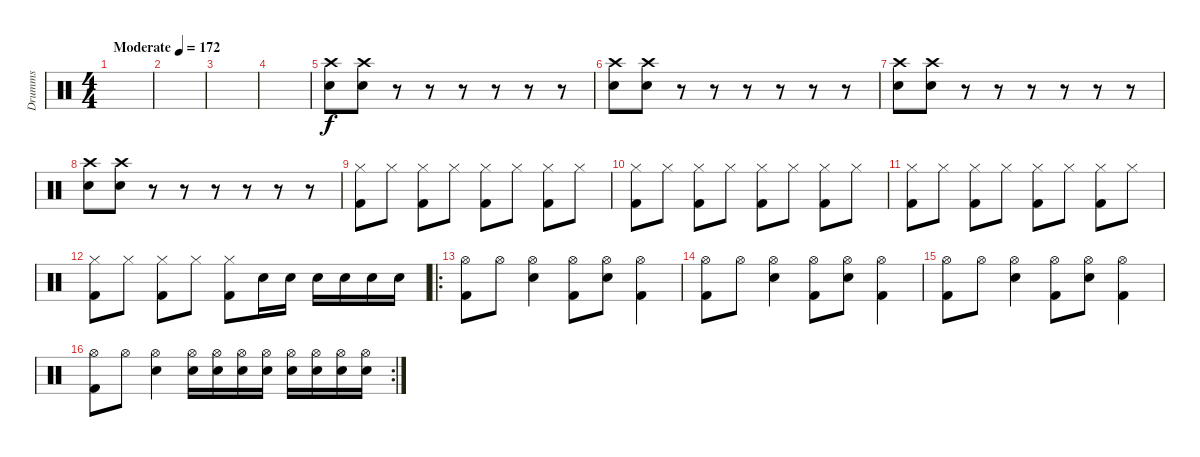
\track ("Drumms" "Drumms") {instrument percussion}
\staff
\articulation defaults
\ts (4 4)
\tempo (172 "Moderate")
\clef neutral
\ks c
|
|
|
|
("Crash high (hit)" "Electric Snare (hit)").8 ("Crash high (hit)" "Electric Snare (hit)").8 r.8 r.8 r.8 r.8 r.8 r.8 |
("Crash high (hit)" "Electric Snare (hit)").8 ("Crash high (hit)" "Electric Snare (hit)").8 r.8 r.8 r.8 r.8 r.8 r.8 |
("Crash high (hit)" "Electric Snare (hit)").8 ("Crash high (hit)" "Electric Snare (hit)").8 r.8 r.8 r.8 r.8 r.8 r.8 |
("Crash high (hit)" "Electric Snare (hit)").8 ("Crash high (hit)" "Electric Snare (hit)").8 r.8 r.8 r.8 r.8 r.8 r.8 |
("Hi-Hat (closed)" "Kick (hit) 2").8 "Hi-Hat (closed)".8 ("Hi-Hat (closed)" "Kick (hit) 2").8 "Hi-Hat (closed)".8 ("Hi-Hat (closed)" "Kick (hit) 2").8 "Hi-Hat (closed)".8 ("Hi-Hat (closed)" "Kick (hit) 2").8 "Hi-Hat (closed)".8 |
("Hi-Hat (closed)" "Kick (hit) 2").8 "Hi-Hat (closed)".8 ("Hi-Hat (closed)" "Kick (hit) 2").8 "Hi-Hat (closed)".8 ("Hi-Hat (closed)" "Kick (hit) 2").8 "Hi-Hat (closed)".8 ("Hi-Hat (closed)" "Kick (hit) 2").8 "Hi-Hat (closed)".8 |
("Hi-Hat (closed)" "Kick (hit) 2").8 "Hi-Hat (closed)".8 ("Hi-Hat (closed)" "Kick (hit) 2").8 "Hi-Hat (closed)".8 ("Hi-Hat (closed)" "Kick (hit) 2").8 "Hi-Hat (closed)".8 ("Hi-Hat (closed)" "Kick (hit) 2").8 "Hi-Hat (closed)".8 |
("Hi-Hat (closed)" "Kick (hit) 2").8 "Hi-Hat (closed)".8 ("Hi-Hat (closed)" "Kick (hit) 2").8 "Hi-Hat (closed)".8 ("Hi-Hat (closed)" "Kick (hit) 2").8 "Snare (hit) 2".16 "Electric Snare (hit)".16 "Snare (hit) 2".16 "Electric Snare (hit)".16 "Snare (hit) 2".16 "Electric Snare (hit)".16 |
\ro
("Kick (hit) 2" "Hi-Hat (open)").8 "Hi-Hat (open)".8 ("Snare (hit) 2" "Hi-Hat (open)").4 ("Kick (hit) 2" "Hi-Hat (open)").8 ("Snare (hit) 2" "Hi-Hat (open)").8 ("Kick (hit) 2" "Hi-Hat (open)").4 |
("Kick (hit) 2" "Hi-Hat (open)").8 "Hi-Hat (open)".8 ("Snare (hit) 2" "Hi-Hat (open)").4 ("Kick (hit) 2" "Hi-Hat (open)").8 ("Snare (hit) 2" "Hi-Hat (open)").8 ("Kick (hit) 2" "Hi-Hat (open)").4 |
("Kick (hit) 2" "Hi-Hat (open)").8 "Hi-Hat (open)".8 ("Snare (hit) 2" "Hi-Hat (open)").4 ("Kick (hit) 2" "Hi-Hat (open)").8 ("Snare (hit) 2" "Hi-Hat (open)").8 ("Kick (hit) 2" "Hi-Hat (open)").4 |
\rc 2
("Kick (hit) 2" "Hi-Hat (open)").8 "Hi-Hat (open)".8 ("Snare (hit) 2" "Hi-Hat (open)").4 ("Snare (hit) 2" "Hi-Hat (open)").16 ("Electric Snare (hit)" "Hi-Hat (open)").16 ("Snare (hit) 2" "Hi-Hat (open)").16 ("Electric Snare (hit)" "Hi-Hat (open)").16 ("Snare (hit) 2" "Hi-Hat (open)").16 ("Electric Snare (hit)" "Hi-Hat (open)").16 ("Snare (hit) 2" "Hi-Hat (open)").16 ("Electric Snare (hit)" "Hi-Hat (open)").16
